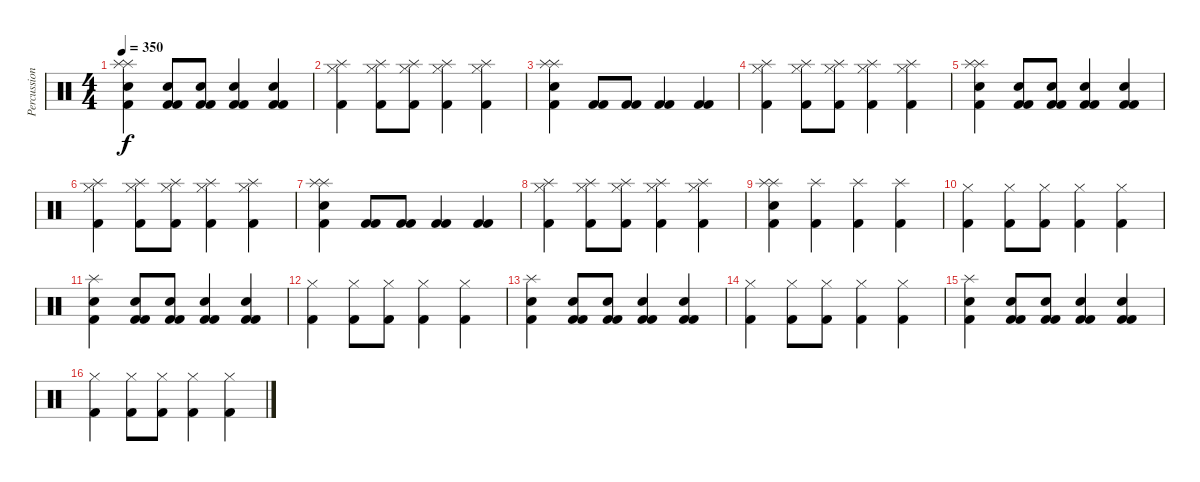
\track ("Percussions2" "Percussion") {instrument percussion}
\staff {score}
\articulation defaults
\ts (4 4)
\tempo 350
\clef neutral
\ks c
("Kick (hit) 2" "Snare (hit) 2" "Splash (hit)" "Splash (hit)").4{dy f} ("Kick (hit) 2" "Kick (hit) 2" "Snare (hit) 2").8 ("Kick (hit) 2" "Kick (hit) 2" "Snare (hit) 2").8 ("Kick (hit) 2" "Kick (hit) 2" "Snare (hit) 2").4 ("Kick (hit) 2" "Kick (hit) 2" "Snare (hit) 2").4 |
("Hi-Hat (closed)" "Kick (hit) 2" "Splash (hit)").4 ("Hi-Hat (closed)" "Kick (hit) 2" "Splash (hit)").8 ("Hi-Hat (closed)" "Kick (hit) 2" "Splash (hit)").8 ("Hi-Hat (closed)" "Kick (hit) 2" "Splash (hit)").4 ("Hi-Hat (closed)" "Kick (hit) 2" "Splash (hit)").4 |
("Kick (hit) 2" "Snare (hit) 2" "Splash (hit)" "Splash (hit)").4 ("Kick (hit) 2" "Kick (hit) 2").8 ("Kick (hit) 2" "Kick (hit) 2").8 ("Kick (hit) 2" "Kick (hit) 2").4 ("Kick (hit) 2" "Kick (hit) 2").4 |
("Hi-Hat (closed)" "Kick (hit) 2" "Splash (hit)").4 ("Hi-Hat (closed)" "Kick (hit) 2" "Splash (hit)").8 ("Hi-Hat (closed)" "Kick (hit) 2" "Splash (hit)").8 ("Hi-Hat (closed)" "Kick (hit) 2" "Splash (hit)").4 ("Hi-Hat (closed)" "Kick (hit) 2" "Splash (hit)").4 |
("Kick (hit) 2" "Snare (hit) 2" "Splash (hit)" "Splash (hit)").4 ("Kick (hit) 2" "Kick (hit) 2" "Snare (hit) 2").8 ("Kick (hit) 2" "Kick (hit) 2" "Snare (hit) 2").8 ("Kick (hit) 2" "Kick (hit) 2" "Snare (hit) 2").4 ("Kick (hit) 2" "Kick (hit) 2" "Snare (hit) 2").4 |
("Hi-Hat (closed)" "Kick (hit) 2" "Splash (hit)").4 ("Hi-Hat (closed)" "Kick (hit) 2" "Splash (hit)").8 ("Hi-Hat (closed)" "Kick (hit) 2" "Splash (hit)").8 ("Hi-Hat (closed)" "Kick (hit) 2" "Splash (hit)").4 ("Hi-Hat (closed)" "Kick (hit) 2" "Splash (hit)").4 |
("Kick (hit) 2" "Snare (hit) 2" "Splash (hit)" "Splash (hit)").4 ("Kick (hit) 2" "Kick (hit) 2").8 ("Kick (hit) 2" "Kick (hit) 2").8 ("Kick (hit) 2" "Kick (hit) 2").4 ("Kick (hit) 2" "Kick (hit) 2").4 |
("Hi-Hat (closed)" "Kick (hit) 2" "Splash (hit)").4 ("Hi-Hat (closed)" "Kick (hit) 2" "Splash (hit)").8 ("Hi-Hat (closed)" "Kick (hit) 2" "Splash (hit)").8 ("Hi-Hat (closed)" "Kick (hit) 2" "Splash (hit)").4 ("Hi-Hat (closed)" "Kick (hit) 2" "Splash (hit)").4 |
("Kick (hit) 2" "Snare (hit) 2" "Splash (hit)" "Splash (hit)").4 ("Kick (hit) 2" "Splash (hit)").4 ("Kick (hit) 2" "Splash (hit)").4 ("Kick (hit) 2" "Splash (hit)").4 |
("Hi-Hat (closed)" "Kick (hit) 2").4 ("Hi-Hat (closed)" "Kick (hit) 2").8 ("Hi-Hat (closed)" "Kick (hit) 2").8 ("Hi-Hat (closed)" "Kick (hit) 2").4 ("Hi-Hat (closed)" "Kick (hit) 2").4 |
("Kick (hit) 2" "Snare (hit) 2" "Splash (hit)").4 ("Kick (hit) 2" "Kick (hit) 2" "Snare (hit) 2").8 ("Kick (hit) 2" "Kick (hit) 2" "Snare (hit) 2").8 ("Kick (hit) 2" "Kick (hit) 2" "Snare (hit) 2").4 ("Kick (hit) 2" "Kick (hit) 2" "Snare (hit) 2").4 |
("Hi-Hat (closed)" "Kick (hit) 2").4 ("Hi-Hat (closed)" "Kick (hit) 2").8 ("Hi-Hat (closed)" "Kick (hit) 2").8 ("Hi-Hat (closed)" "Kick (hit) 2").4 ("Hi-Hat (closed)" "Kick (hit) 2").4 |
("Kick (hit) 2" "Snare (hit) 2" "Splash (hit)").4 ("Kick (hit) 2" "Kick (hit) 2" "Snare (hit) 2").8 ("Kick (hit) 2" "Kick (hit) 2" "Snare (hit) 2").8 ("Kick (hit) 2" "Kick (hit) 2" "Snare (hit) 2").4 ("Kick (hit) 2" "Kick (hit) 2" "Snare (hit) 2").4 |
("Hi-Hat (closed)" "Kick (hit) 2").4 ("Hi-Hat (closed)" "Kick (hit) 2").8 ("Hi-Hat (closed)" "Kick (hit) 2").8 ("Hi-Hat (closed)" "Kick (hit) 2").4 ("Hi-Hat (closed)" "Kick (hit) 2").4 |
("Kick (hit) 2" "Snare (hit) 2" "Splash (hit)").4 ("Kick (hit) 2" "Kick (hit) 2" "Snare (hit) 2").8 ("Kick (hit) 2" "Kick (hit) 2" "Snare (hit) 2").8 ("Kick (hit) 2" "Kick (hit) 2" "Snare (hit) 2").4 ("Kick (hit) 2" "Kick (hit) 2" "Snare (hit) 2").4 |
("Hi-Hat (closed)" "Kick (hit) 2").4 ("Hi-Hat (closed)" "Kick (hit) 2").8 ("Hi-Hat (closed)" "Kick (hit) 2").8 ("Hi-Hat (closed)" "Kick (hit) 2").4 ("Hi-Hat (closed)" "Kick (hit) 2").4
